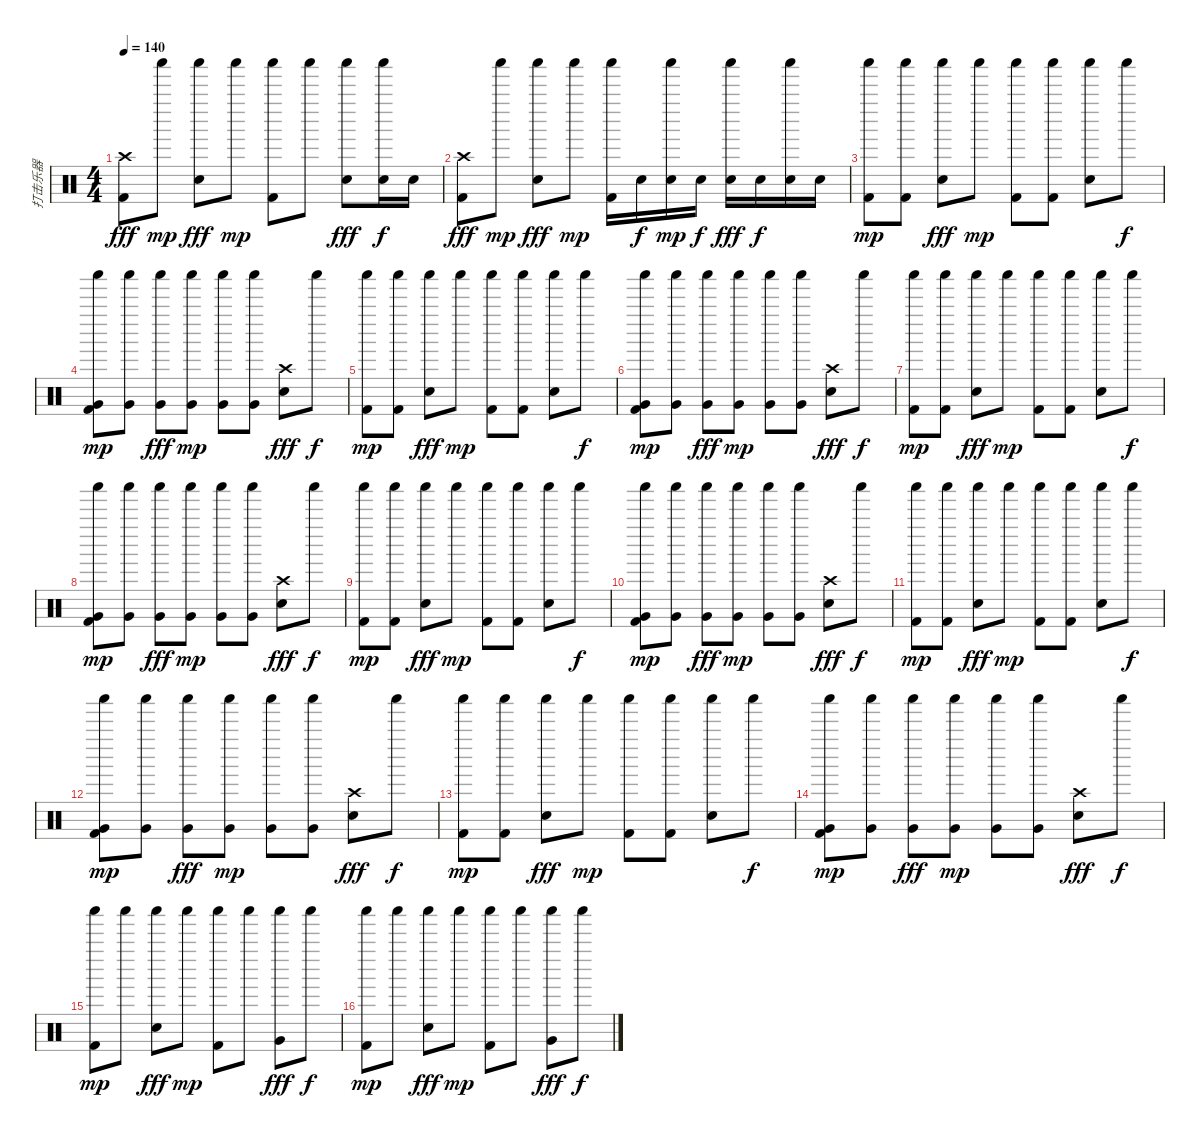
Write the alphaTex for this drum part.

\track ("打击乐器" "打击乐器") {instrument percussion}
\staff {score}
\articulation defaults
\ts (4 4)
\tempo 140
\clef neutral
\ks c
("Crash high (hit)" "Kick (hit) 2").8{dy fff} "Shaker (hit)".8{dy mp} ("Shaker (hit)" "Electric Snare (hit)").8{dy fff} "Shaker (hit)".8{dy mp} ("Shaker (hit)" "Kick (hit) 2").8 "Shaker (hit)".8 ("Shaker (hit)" "Electric Snare (hit)").8{dy fff} ("Shaker (hit)" "Electric Snare (hit)").16{dy f} "Electric Snare (hit)".16 |
("Crash high (hit)" "Kick (hit) 2").8{dy fff} "Shaker (hit)".8{dy mp} ("Shaker (hit)" "Electric Snare (hit)").8{dy fff} "Shaker (hit)".8{dy mp} ("Shaker (hit)" "Kick (hit) 2").16 "Electric Snare (hit)".16{dy f} ("Shaker (hit)" "Electric Snare (hit)").16{dy mp} "Electric Snare (hit)".16{dy f} ("Shaker (hit)" "Electric Snare (hit)").16{dy fff} "Electric Snare (hit)".16{dy f} ("Shaker (hit)" "Electric Snare (hit)").16 "Electric Snare (hit)".16 |
("Shaker (hit)" "Kick (hit) 2").8{dy mp} ("Shaker (hit)" "Kick (hit) 2").8 ("Shaker (hit)" "Electric Snare (hit)").8{dy fff} "Shaker (hit)".8{dy mp} ("Shaker (hit)" "Kick (hit) 2").8 ("Shaker (hit)" "Kick (hit) 2").8 ("Shaker (hit)" "Electric Snare (hit)").8 "Shaker (hit)".8{dy f} |
("Shaker (hit)" "Very Low Tom (hit)" "Kick (hit) 2").8{dy mp} ("Shaker (hit)" "Very Low Tom (hit)").8 ("Shaker (hit)" "Very Low Tom (hit)").8{dy fff} ("Shaker (hit)" "Very Low Tom (hit)").8{dy mp} ("Shaker (hit)" "Very Low Tom (hit)").8 ("Shaker (hit)" "Very Low Tom (hit)").8 ("Crash high (hit)" "Electric Snare (hit)").8{dy fff} "Shaker (hit)".8{dy f} |
("Shaker (hit)" "Kick (hit) 2").8{dy mp} ("Shaker (hit)" "Kick (hit) 2").8 ("Shaker (hit)" "Electric Snare (hit)").8{dy fff} "Shaker (hit)".8{dy mp} ("Shaker (hit)" "Kick (hit) 2").8 ("Shaker (hit)" "Kick (hit) 2").8 ("Shaker (hit)" "Electric Snare (hit)").8 "Shaker (hit)".8{dy f} |
("Shaker (hit)" "Very Low Tom (hit)" "Kick (hit) 2").8{dy mp} ("Shaker (hit)" "Very Low Tom (hit)").8 ("Shaker (hit)" "Very Low Tom (hit)").8{dy fff} ("Shaker (hit)" "Very Low Tom (hit)").8{dy mp} ("Shaker (hit)" "Very Low Tom (hit)").8 ("Shaker (hit)" "Very Low Tom (hit)").8 ("Crash high (hit)" "Electric Snare (hit)").8{dy fff} "Shaker (hit)".8{dy f} |
("Shaker (hit)" "Kick (hit) 2").8{dy mp} ("Shaker (hit)" "Kick (hit) 2").8 ("Shaker (hit)" "Electric Snare (hit)").8{dy fff} "Shaker (hit)".8{dy mp} ("Shaker (hit)" "Kick (hit) 2").8 ("Shaker (hit)" "Kick (hit) 2").8 ("Shaker (hit)" "Electric Snare (hit)").8 "Shaker (hit)".8{dy f} |
("Shaker (hit)" "Very Low Tom (hit)" "Kick (hit) 2").8{dy mp} ("Shaker (hit)" "Very Low Tom (hit)").8 ("Shaker (hit)" "Very Low Tom (hit)").8{dy fff} ("Shaker (hit)" "Very Low Tom (hit)").8{dy mp} ("Shaker (hit)" "Very Low Tom (hit)").8 ("Shaker (hit)" "Very Low Tom (hit)").8 ("Crash high (hit)" "Electric Snare (hit)").8{dy fff} "Shaker (hit)".8{dy f} |
("Shaker (hit)" "Kick (hit) 2").8{dy mp} ("Shaker (hit)" "Kick (hit) 2").8 ("Shaker (hit)" "Electric Snare (hit)").8{dy fff} "Shaker (hit)".8{dy mp} ("Shaker (hit)" "Kick (hit) 2").8 ("Shaker (hit)" "Kick (hit) 2").8 ("Shaker (hit)" "Electric Snare (hit)").8 "Shaker (hit)".8{dy f} |
("Shaker (hit)" "Very Low Tom (hit)" "Kick (hit) 2").8{dy mp} ("Shaker (hit)" "Very Low Tom (hit)").8 ("Shaker (hit)" "Very Low Tom (hit)").8{dy fff} ("Shaker (hit)" "Very Low Tom (hit)").8{dy mp} ("Shaker (hit)" "Very Low Tom (hit)").8 ("Shaker (hit)" "Very Low Tom (hit)").8 ("Crash high (hit)" "Electric Snare (hit)").8{dy fff} "Shaker (hit)".8{dy f} |
("Shaker (hit)" "Kick (hit) 2").8{dy mp} ("Shaker (hit)" "Kick (hit) 2").8 ("Shaker (hit)" "Electric Snare (hit)").8{dy fff} "Shaker (hit)".8{dy mp} ("Shaker (hit)" "Kick (hit) 2").8 ("Shaker (hit)" "Kick (hit) 2").8 ("Shaker (hit)" "Electric Snare (hit)").8 "Shaker (hit)".8{dy f} |
("Shaker (hit)" "Very Low Tom (hit)" "Kick (hit) 2").8{dy mp} ("Shaker (hit)" "Very Low Tom (hit)").8 ("Shaker (hit)" "Very Low Tom (hit)").8{dy fff} ("Shaker (hit)" "Very Low Tom (hit)").8{dy mp} ("Shaker (hit)" "Very Low Tom (hit)").8 ("Shaker (hit)" "Very Low Tom (hit)").8 ("Crash high (hit)" "Electric Snare (hit)").8{dy fff} "Shaker (hit)".8{dy f} |
("Shaker (hit)" "Kick (hit) 2").8{dy mp} ("Shaker (hit)" "Kick (hit) 2").8 ("Shaker (hit)" "Electric Snare (hit)").8{dy fff} "Shaker (hit)".8{dy mp} ("Shaker (hit)" "Kick (hit) 2").8 ("Shaker (hit)" "Kick (hit) 2").8 ("Shaker (hit)" "Electric Snare (hit)").8 "Shaker (hit)".8{dy f} |
("Shaker (hit)" "Very Low Tom (hit)" "Kick (hit) 2").8{dy mp} ("Shaker (hit)" "Very Low Tom (hit)").8 ("Shaker (hit)" "Very Low Tom (hit)").8{dy fff} ("Shaker (hit)" "Very Low Tom (hit)").8{dy mp} ("Shaker (hit)" "Very Low Tom (hit)").8 ("Shaker (hit)" "Very Low Tom (hit)").8 ("Crash high (hit)" "Electric Snare (hit)").8{dy fff} "Shaker (hit)".8{dy f} |
("Shaker (hit)" "Kick (hit) 2").8{dy mp} "Shaker (hit)".8 ("Shaker (hit)" "Electric Snare (hit)").8{dy fff} "Shaker (hit)".8{dy mp} ("Shaker (hit)" "Kick (hit) 2").8 "Shaker (hit)".8 ("Shaker (hit)" "Very Low Tom (hit)").8{dy fff} "Shaker (hit)".8{dy f} |
("Shaker (hit)" "Kick (hit) 2").8{dy mp} "Shaker (hit)".8 ("Shaker (hit)" "Electric Snare (hit)").8{dy fff} "Shaker (hit)".8{dy mp} ("Shaker (hit)" "Kick (hit) 2").8 "Shaker (hit)".8 ("Shaker (hit)" "Very Low Tom (hit)").8{dy fff} "Shaker (hit)".8{dy f}
